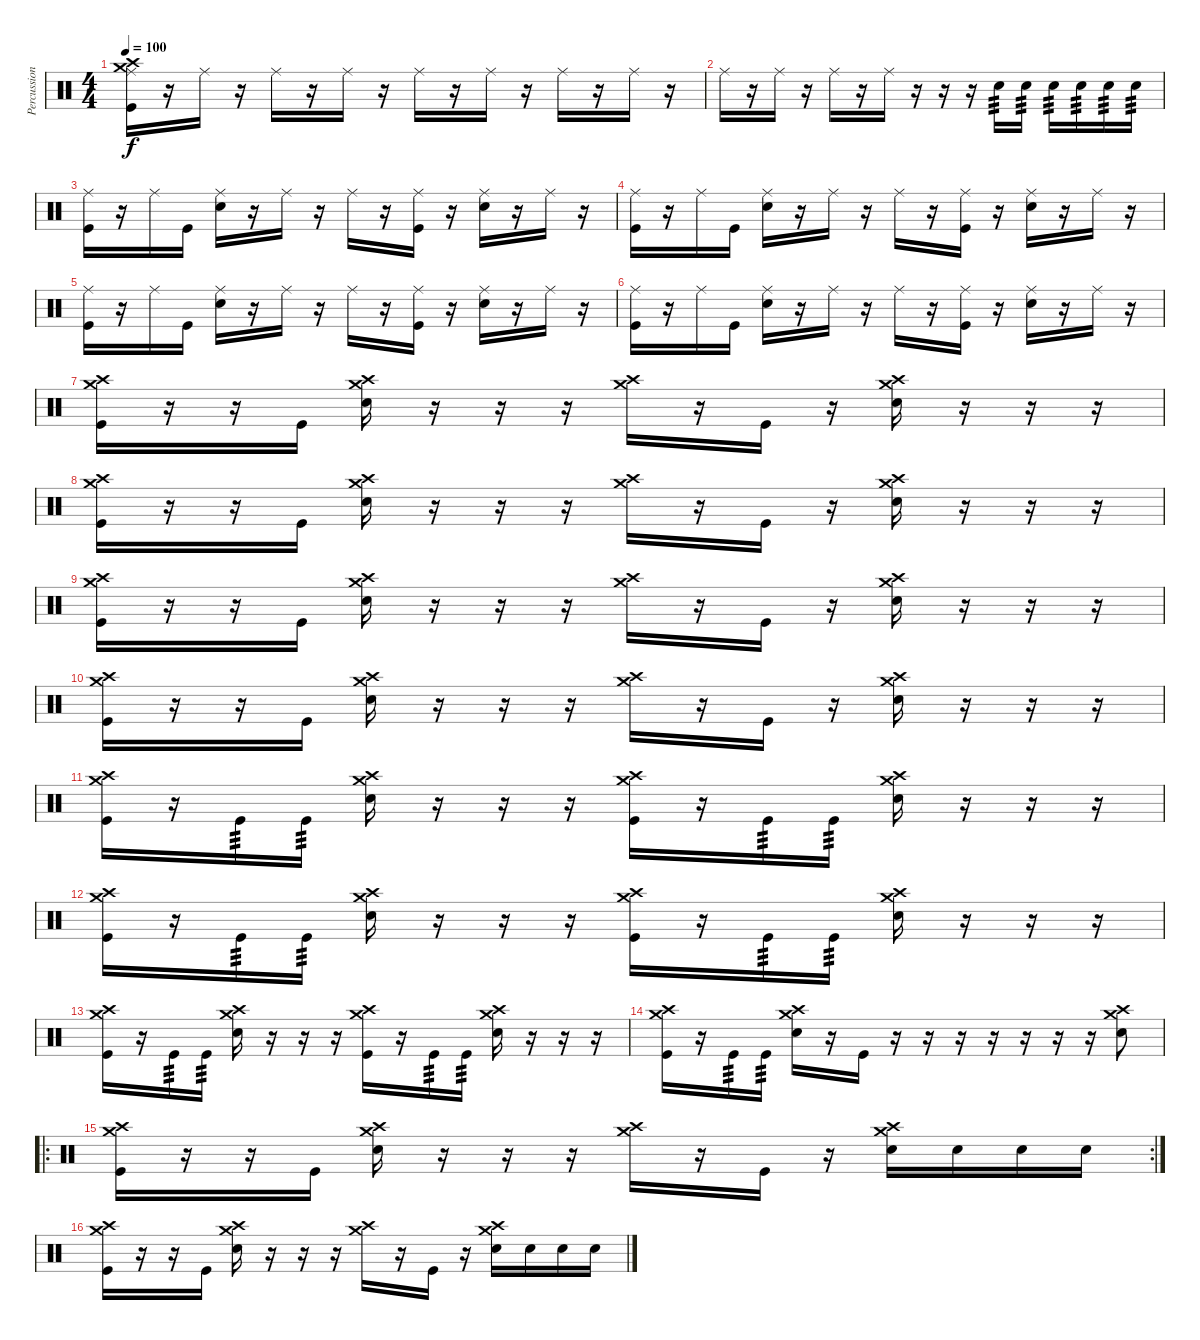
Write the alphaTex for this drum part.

\track ("Percussion" "Percussion") {instrument percussion}
\staff {score}
\articulation defaults
\ts (4 4)
\tempo 100
\clef neutral
\ks c
("Crash medium (hit)" "Crash high (hit)" "Ride (middle)" "Kick (hit)").16{dy f} r.16 "Ride (middle)".16 r.16 "Ride (middle)".16 r.16 "Ride (middle)".16 r.16 "Ride (middle)".16 r.16 "Ride (middle)".16 r.16 "Ride (middle)".16 r.16 "Ride (middle)".16 r.16 |
"Ride (middle)".16 r.16 "Ride (middle)".16 r.16 "Ride (middle)".16 r.16 "Ride (middle)".16 r.16 r.16 r.16 "Snare (hit) 2".16{tp 3} "Snare (hit) 2".16{tp 3} "Snare (hit) 2".16{tp 3} "Snare (hit) 2".16{tp 3} "Snare (hit) 2".16{tp 3} "Snare (hit) 2".16{tp 3} |
("Ride (middle)" "Kick (hit)").16 r.16 "Ride (middle)".16 "Kick (hit)".16 ("Ride (middle)" "Snare (hit) 2").16 r.16 "Ride (middle)".16 r.16 "Ride (middle)".16 r.16 ("Ride (middle)" "Kick (hit)").16 r.16 ("Ride (middle)" "Snare (hit) 2").16 r.16 "Ride (middle)".16 r.16 |
("Ride (middle)" "Kick (hit)").16 r.16 "Ride (middle)".16 "Kick (hit)".16 ("Ride (middle)" "Snare (hit) 2").16 r.16 "Ride (middle)".16 r.16 "Ride (middle)".16 r.16 ("Ride (middle)" "Kick (hit)").16 r.16 ("Ride (middle)" "Snare (hit) 2").16 r.16 "Ride (middle)".16 r.16 |
("Ride (middle)" "Kick (hit)").16 r.16 "Ride (middle)".16 "Kick (hit)".16 ("Ride (middle)" "Snare (hit) 2").16 r.16 "Ride (middle)".16 r.16 "Ride (middle)".16 r.16 ("Ride (middle)" "Kick (hit)").16 r.16 ("Ride (middle)" "Snare (hit) 2").16 r.16 "Ride (middle)".16 r.16 |
("Ride (middle)" "Kick (hit)").16 r.16 "Ride (middle)".16 "Kick (hit)".16 ("Ride (middle)" "Snare (hit) 2").16 r.16 "Ride (middle)".16 r.16 "Ride (middle)".16 r.16 ("Ride (middle)" "Kick (hit)").16 r.16 ("Ride (middle)" "Snare (hit) 2").16 r.16 "Ride (middle)".16 r.16 |
("Crash medium (hit)" "Crash high (hit)" "Kick (hit)").16 r.16 r.16 "Kick (hit)".16 ("Crash medium (hit)" "Crash high (hit)" "Snare (hit) 2").16 r.16 r.16 r.16 ("Crash medium (hit)" "Crash high (hit)").16 r.16 "Kick (hit)".16 r.16 ("Crash medium (hit)" "Crash high (hit)" "Snare (hit) 2").16 r.16 r.16 r.16 |
("Crash medium (hit)" "Crash high (hit)" "Kick (hit)").16 r.16 r.16 "Kick (hit)".16 ("Crash medium (hit)" "Crash high (hit)" "Snare (hit) 2").16 r.16 r.16 r.16 ("Crash medium (hit)" "Crash high (hit)").16 r.16 "Kick (hit)".16 r.16 ("Crash medium (hit)" "Crash high (hit)" "Snare (hit) 2").16 r.16 r.16 r.16 |
("Crash medium (hit)" "Crash high (hit)" "Kick (hit)").16 r.16 r.16 "Kick (hit)".16 ("Crash medium (hit)" "Crash high (hit)" "Snare (hit) 2").16 r.16 r.16 r.16 ("Crash medium (hit)" "Crash high (hit)").16 r.16 "Kick (hit)".16 r.16 ("Crash medium (hit)" "Crash high (hit)" "Snare (hit) 2").16 r.16 r.16 r.16 |
("Crash medium (hit)" "Crash high (hit)" "Kick (hit)").16 r.16 r.16 "Kick (hit)".16 ("Crash medium (hit)" "Crash high (hit)" "Snare (hit) 2").16 r.16 r.16 r.16 ("Crash medium (hit)" "Crash high (hit)").16 r.16 "Kick (hit)".16 r.16 ("Crash medium (hit)" "Crash high (hit)" "Snare (hit) 2").16 r.16 r.16 r.16 |
("Crash medium (hit)" "Crash high (hit)" "Kick (hit)").16 r.16 "Kick (hit)".16{tp 3} "Kick (hit)".16{tp 3} ("Crash medium (hit)" "Crash high (hit)" "Snare (hit) 2").16 r.16 r.16 r.16 ("Crash medium (hit)" "Crash high (hit)" "Kick (hit)").16 r.16 "Kick (hit)".16{tp 3} "Kick (hit)".16{tp 3} ("Crash medium (hit)" "Crash high (hit)" "Snare (hit) 2").16 r.16 r.16 r.16 |
("Crash medium (hit)" "Crash high (hit)" "Kick (hit)").16 r.16 "Kick (hit)".16{tp 3} "Kick (hit)".16{tp 3} ("Crash medium (hit)" "Crash high (hit)" "Snare (hit) 2").16 r.16 r.16 r.16 ("Crash medium (hit)" "Crash high (hit)" "Kick (hit)").16 r.16 "Kick (hit)".16{tp 3} "Kick (hit)".16{tp 3} ("Crash medium (hit)" "Crash high (hit)" "Snare (hit) 2").16 r.16 r.16 r.16 |
("Crash medium (hit)" "Crash high (hit)" "Kick (hit)").16 r.16 "Kick (hit)".16{tp 3} "Kick (hit)".16{tp 3} ("Crash medium (hit)" "Crash high (hit)" "Snare (hit) 2").16 r.16 r.16 r.16 ("Crash medium (hit)" "Crash high (hit)" "Kick (hit)").16 r.16 "Kick (hit)".16{tp 3} "Kick (hit)".16{tp 3} ("Crash medium (hit)" "Crash high (hit)" "Snare (hit) 2").16 r.16 r.16 r.16 |
("Crash medium (hit)" "Crash high (hit)" "Kick (hit)").16 r.16 "Kick (hit)".16{tp 3} "Kick (hit)".16{tp 3} ("Crash medium (hit)" "Crash high (hit)" "Snare (hit) 2").16 r.16 "Kick (hit)".16 r.16 r.16 r.16 r.16 r.16 r.16 r.16 ("Crash medium (hit)" "Crash high (hit)" "Snare (hit) 2").8 |
\ro
\rc 2
("Crash medium (hit)" "Crash high (hit)" "Kick (hit)").16 r.16 r.16 "Kick (hit)".16 ("Crash medium (hit)" "Crash high (hit)" "Snare (hit) 2").16 r.16 r.16 r.16 ("Crash medium (hit)" "Crash high (hit)").16 r.16 "Kick (hit)".16 r.16 ("Crash medium (hit)" "Crash high (hit)" "Snare (hit) 2").16 "Snare (hit) 2".16 "Snare (hit) 2".16 "Snare (hit) 2".16 |
("Crash medium (hit)" "Crash high (hit)" "Kick (hit)").16 r.16 r.16 "Kick (hit)".16 ("Crash medium (hit)" "Crash high (hit)" "Snare (hit) 2").16 r.16 r.16 r.16 ("Crash medium (hit)" "Crash high (hit)").16 r.16 "Kick (hit)".16 r.16 ("Crash medium (hit)" "Crash high (hit)" "Snare (hit) 2").16 "Snare (hit) 2".16 "Snare (hit) 2".16 "Snare (hit) 2".16
